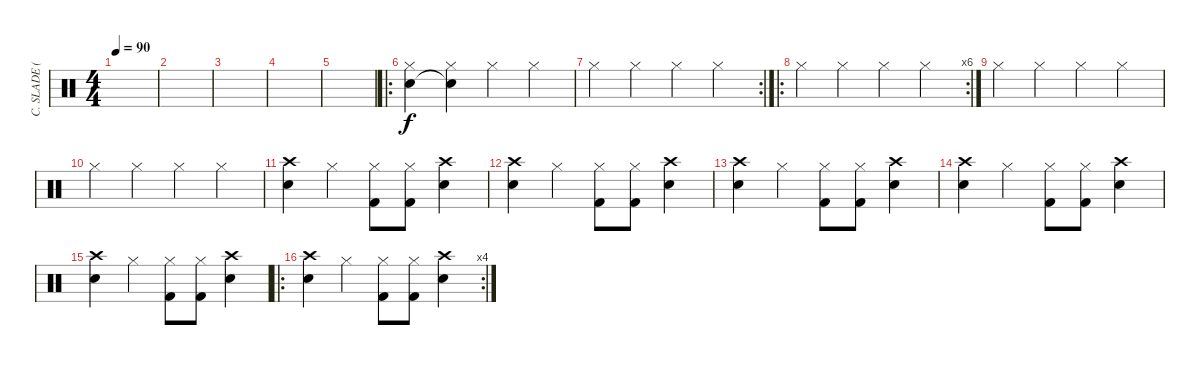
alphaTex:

\track ("C. SLADE (drums)" "C. SLADE (") {instrument percussion}
\staff {score}
\articulation defaults
\ts (4 4)
\tempo 90
\clef neutral
\ks c
|
|
|
|
|
\ro
("Hi-Hat (closed)" "Snare (hit) 2").4 ("Hi-Hat (closed)" "Snare (hit) 2"{t}).4 "Hi-Hat (closed)".4 "Hi-Hat (closed)".4 |
\rc 2 "Hi-Hat (closed)".4 "Hi-Hat (closed)".4 "Hi-Hat (closed)".4 "Hi-Hat (closed)".4
|
\ro
\rc 6 "Hi-Hat (closed)".4 "Hi-Hat (closed)".4 "Hi-Hat (closed)".4 "Hi-Hat (closed)".4
|
"Hi-Hat (closed)".4 "Hi-Hat (closed)".4 "Hi-Hat (closed)".4 "Hi-Hat (closed)".4 |
"Hi-Hat (closed)".4 "Hi-Hat (closed)".4 "Hi-Hat (closed)".4 "Hi-Hat (closed)".4 |
("Crash high (hit)" "Snare (hit) 2").4 "Hi-Hat (closed)".4 ("Hi-Hat (closed)" "Kick (hit) 2").8 ("Hi-Hat (closed)" "Kick (hit) 2").8 ("Crash high (hit)" "Snare (hit) 2").4 |
("Crash high (hit)" "Snare (hit) 2").4 "Hi-Hat (closed)".4 ("Hi-Hat (closed)" "Kick (hit) 2").8 ("Hi-Hat (closed)" "Kick (hit) 2").8 ("Crash high (hit)" "Snare (hit) 2").4 |
("Crash high (hit)" "Snare (hit) 2").4 "Hi-Hat (closed)".4 ("Hi-Hat (closed)" "Kick (hit) 2").8 ("Hi-Hat (closed)" "Kick (hit) 2").8 ("Crash high (hit)" "Snare (hit) 2").4 |
("Crash high (hit)" "Snare (hit) 2").4 "Hi-Hat (closed)".4 ("Hi-Hat (closed)" "Kick (hit) 2").8 ("Hi-Hat (closed)" "Kick (hit) 2").8 ("Crash high (hit)" "Snare (hit) 2").4 |
("Crash high (hit)" "Snare (hit) 2").4 "Hi-Hat (closed)".4 ("Hi-Hat (closed)" "Kick (hit) 2").8 ("Hi-Hat (closed)" "Kick (hit) 2").8 ("Crash high (hit)" "Snare (hit) 2").4 |
\ro
\rc 4
("Crash high (hit)" "Snare (hit) 2").4 "Hi-Hat (closed)".4 ("Hi-Hat (closed)" "Kick (hit) 2").8 ("Hi-Hat (closed)" "Kick (hit) 2").8 ("Crash high (hit)" "Snare (hit) 2").4
